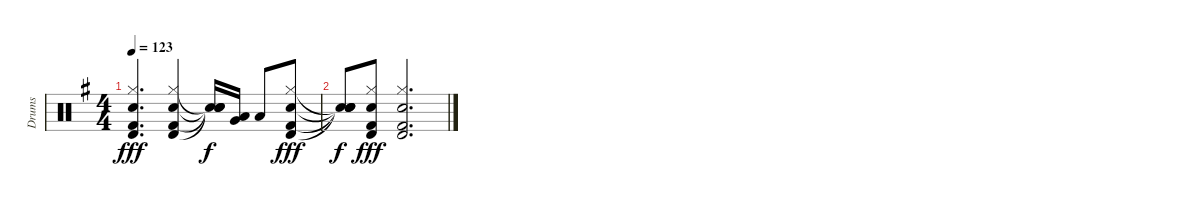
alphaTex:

\track ("Drums" "Drums") {instrument percussion}
\staff {score}
\articulation defaults
\ts (4 4)
\tempo 123
\clef neutral
\ks g
("Kick (hit) 2" "Electric Snare (hit)" "Hi-Hat (closed)" "Timbale high (hit)").4{d dy fff} ("Kick (hit) 2" "Electric Snare (hit)" "Hi-Hat (closed)" "Timbale high (hit)").4 ("Snare (hit)"{t} "Snare (hit)"{t} "Snare (hit)"{t} "Snare (hit)"{t}).16{dy f} ("Very Low Tom (hit)" "Low Tom (hit)").16 "Low Floor Tom (hit)".8 ("Kick (hit) 2" "Electric Snare (hit)" "Hi-Hat (closed)" "Timbale high (hit)").8{dy fff} |
("Snare (hit)"{t} "Snare (hit)"{t} "Snare (hit)"{t} "Snare (hit)"{t}).8{dy f} ("Kick (hit) 2" "Electric Snare (hit)" "Hi-Hat (closed)" "Timbale high (hit)").8{dy fff} ("Kick (hit) 2" "Electric Snare (hit)" "Hi-Hat (closed)" "Timbale high (hit)").2{d}
